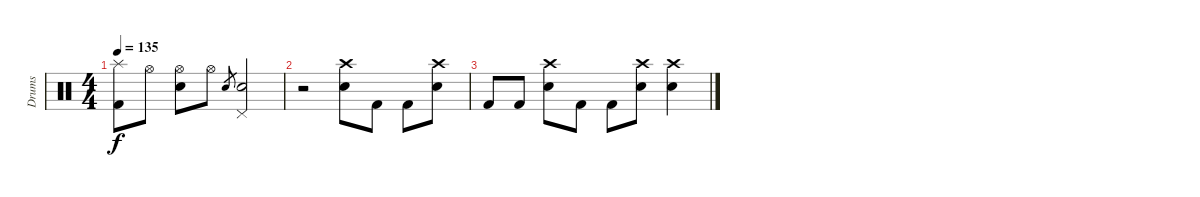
\track ("Drums" "Drums") {instrument percussion}
\staff {score}
\articulation defaults
\ts (4 4)
\tempo 135
\clef neutral
\ks c
("Splash (hit)" "Kick (hit) 2").8{dy f} "Hi-Hat (open)".8 ("Hi-Hat (open)" "Electric Snare (hit)").8 "Hi-Hat (open)".8 "Electric Snare (hit)".8{gr} ("Pedal Hi-Hat (hit)" "Electric Snare (hit)").2 |
r.2 ("Crash high (hit)" "Electric Snare (hit)").8 "Kick (hit) 2".8 "Kick (hit) 2".8 ("Crash high (hit)" "Electric Snare (hit)").8 |
"Kick (hit) 2".8 "Kick (hit) 2".8 ("Crash high (hit)" "Electric Snare (hit)").8 "Kick (hit) 2".8 "Kick (hit) 2".8 ("Crash high (hit)" "Electric Snare (hit)").8 ("Crash high (hit)" "Electric Snare (hit)").4
